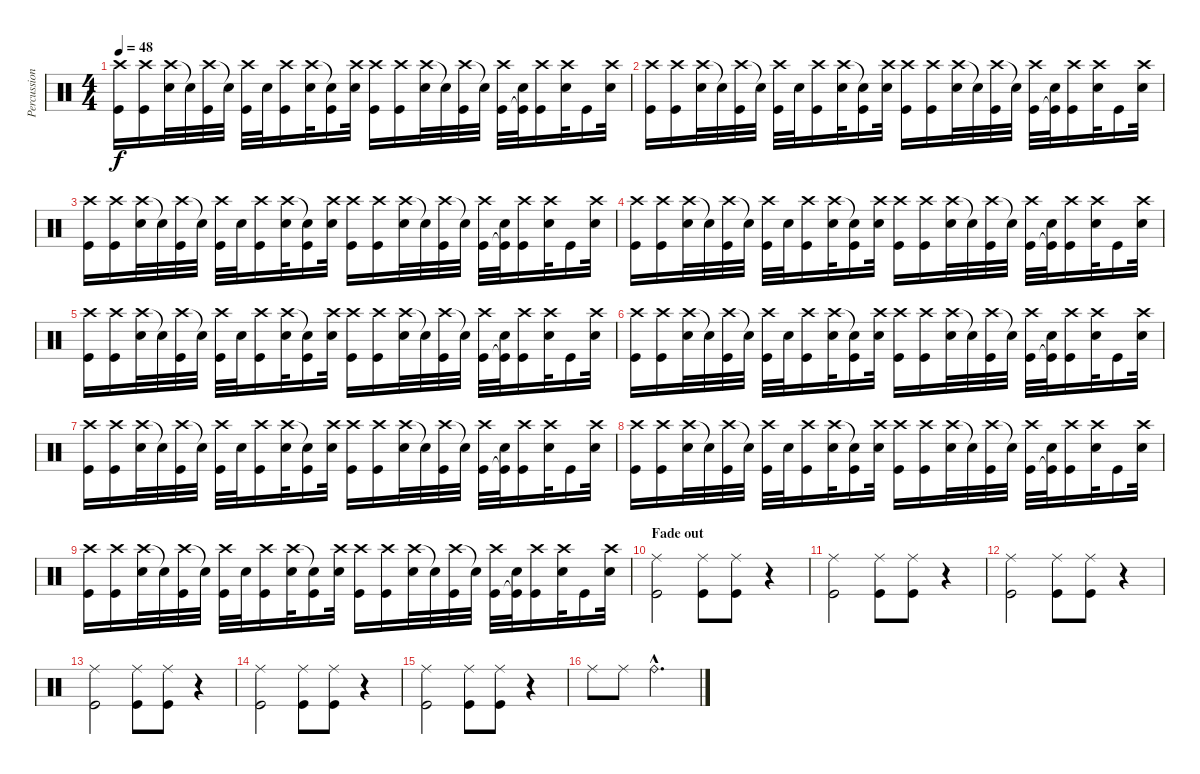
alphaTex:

\track ("Percussions" "Percussion") {instrument percussion}
\staff {score}
\articulation defaults
\ts (4 4)
\tempo 48
\clef neutral
\ks c
("Crash high (hit)" "Kick (hit)").16{dy f} ("Crash high (hit)" "Kick (hit)").16 ("Crash high (hit)" "Electric Snare (hit)").32 "Snare (hit)"{t}.32 ("Crash high (hit)" "Kick (hit)").32 "Snare (hit)"{t}.32 ("Crash high (hit)" "Kick (hit)").32 "Electric Snare (hit)".32 ("Crash high (hit)" "Kick (hit)").16 ("Crash high (hit)" "Electric Snare (hit)").32 ("Snare (hit)"{t} "Kick (hit)").16 ("Crash high (hit)" "Electric Snare (hit)").32 ("Crash high (hit)" "Kick (hit)").16 ("Crash high (hit)" "Kick (hit)").16 ("Crash high (hit)" "Electric Snare (hit)").32 "Snare (hit)"{t}.32 ("Crash high (hit)" "Kick (hit)").32 "Snare (hit)"{t}.32 ("Crash high (hit)" "Kick (hit)").32 ("Electric Snare (hit)" "Kick (hit)"{t}).32 ("Crash high (hit)" "Kick (hit)").16 ("Crash high (hit)" "Electric Snare (hit)").32 "Kick (hit)".16 ("Crash high (hit)" "Electric Snare (hit)").32 |
("Crash high (hit)" "Kick (hit)").16 ("Crash high (hit)" "Kick (hit)").16 ("Crash high (hit)" "Electric Snare (hit)").32 "Snare (hit)"{t}.32 ("Crash high (hit)" "Kick (hit)").32 "Snare (hit)"{t}.32 ("Crash high (hit)" "Kick (hit)").32 "Electric Snare (hit)".32 ("Crash high (hit)" "Kick (hit)").16 ("Crash high (hit)" "Electric Snare (hit)").32 ("Snare (hit)"{t} "Kick (hit)").16 ("Crash high (hit)" "Electric Snare (hit)").32 ("Crash high (hit)" "Kick (hit)").16 ("Crash high (hit)" "Kick (hit)").16 ("Crash high (hit)" "Electric Snare (hit)").32 "Snare (hit)"{t}.32 ("Crash high (hit)" "Kick (hit)").32 "Snare (hit)"{t}.32 ("Crash high (hit)" "Kick (hit)").32 ("Electric Snare (hit)" "Kick (hit)"{t}).32 ("Crash high (hit)" "Kick (hit)").16 ("Crash high (hit)" "Electric Snare (hit)").32 "Kick (hit)".16 ("Crash high (hit)" "Electric Snare (hit)").32 |
("Crash high (hit)" "Kick (hit)").16 ("Crash high (hit)" "Kick (hit)").16 ("Crash high (hit)" "Electric Snare (hit)").32 "Snare (hit)"{t}.32 ("Crash high (hit)" "Kick (hit)").32 "Snare (hit)"{t}.32 ("Crash high (hit)" "Kick (hit)").32 "Electric Snare (hit)".32 ("Crash high (hit)" "Kick (hit)").16 ("Crash high (hit)" "Electric Snare (hit)").32 ("Snare (hit)"{t} "Kick (hit)").16 ("Crash high (hit)" "Electric Snare (hit)").32 ("Crash high (hit)" "Kick (hit)").16 ("Crash high (hit)" "Kick (hit)").16 ("Crash high (hit)" "Electric Snare (hit)").32 "Snare (hit)"{t}.32 ("Crash high (hit)" "Kick (hit)").32 "Snare (hit)"{t}.32 ("Crash high (hit)" "Kick (hit)").32 ("Electric Snare (hit)" "Kick (hit)"{t}).32 ("Crash high (hit)" "Kick (hit)").16 ("Crash high (hit)" "Electric Snare (hit)").32 "Kick (hit)".16 ("Crash high (hit)" "Electric Snare (hit)").32 |
("Crash high (hit)" "Kick (hit)").16 ("Crash high (hit)" "Kick (hit)").16 ("Crash high (hit)" "Electric Snare (hit)").32 "Snare (hit)"{t}.32 ("Crash high (hit)" "Kick (hit)").32 "Snare (hit)"{t}.32 ("Crash high (hit)" "Kick (hit)").32 "Electric Snare (hit)".32 ("Crash high (hit)" "Kick (hit)").16 ("Crash high (hit)" "Electric Snare (hit)").32 ("Snare (hit)"{t} "Kick (hit)").16 ("Crash high (hit)" "Electric Snare (hit)").32 ("Crash high (hit)" "Kick (hit)").16 ("Crash high (hit)" "Kick (hit)").16 ("Crash high (hit)" "Electric Snare (hit)").32 "Snare (hit)"{t}.32 ("Crash high (hit)" "Kick (hit)").32 "Snare (hit)"{t}.32 ("Crash high (hit)" "Kick (hit)").32 ("Electric Snare (hit)" "Kick (hit)"{t}).32 ("Crash high (hit)" "Kick (hit)").16 ("Crash high (hit)" "Electric Snare (hit)").32 "Kick (hit)".16 ("Crash high (hit)" "Electric Snare (hit)").32 |
("Crash high (hit)" "Kick (hit)").16 ("Crash high (hit)" "Kick (hit)").16 ("Crash high (hit)" "Electric Snare (hit)").32 "Snare (hit)"{t}.32 ("Crash high (hit)" "Kick (hit)").32 "Snare (hit)"{t}.32 ("Crash high (hit)" "Kick (hit)").32 "Electric Snare (hit)".32 ("Crash high (hit)" "Kick (hit)").16 ("Crash high (hit)" "Electric Snare (hit)").32 ("Snare (hit)"{t} "Kick (hit)").16 ("Crash high (hit)" "Electric Snare (hit)").32 ("Crash high (hit)" "Kick (hit)").16 ("Crash high (hit)" "Kick (hit)").16 ("Crash high (hit)" "Electric Snare (hit)").32 "Snare (hit)"{t}.32 ("Crash high (hit)" "Kick (hit)").32 "Snare (hit)"{t}.32 ("Crash high (hit)" "Kick (hit)").32 ("Electric Snare (hit)" "Kick (hit)"{t}).32 ("Crash high (hit)" "Kick (hit)").16 ("Crash high (hit)" "Electric Snare (hit)").32 "Kick (hit)".16 ("Crash high (hit)" "Electric Snare (hit)").32 |
("Crash high (hit)" "Kick (hit)").16 ("Crash high (hit)" "Kick (hit)").16 ("Crash high (hit)" "Electric Snare (hit)").32 "Snare (hit)"{t}.32 ("Crash high (hit)" "Kick (hit)").32 "Snare (hit)"{t}.32 ("Crash high (hit)" "Kick (hit)").32 "Electric Snare (hit)".32 ("Crash high (hit)" "Kick (hit)").16 ("Crash high (hit)" "Electric Snare (hit)").32 ("Snare (hit)"{t} "Kick (hit)").16 ("Crash high (hit)" "Electric Snare (hit)").32 ("Crash high (hit)" "Kick (hit)").16 ("Crash high (hit)" "Kick (hit)").16 ("Crash high (hit)" "Electric Snare (hit)").32 "Snare (hit)"{t}.32 ("Crash high (hit)" "Kick (hit)").32 "Snare (hit)"{t}.32 ("Crash high (hit)" "Kick (hit)").32 ("Electric Snare (hit)" "Kick (hit)"{t}).32 ("Crash high (hit)" "Kick (hit)").16 ("Crash high (hit)" "Electric Snare (hit)").32 "Kick (hit)".16 ("Crash high (hit)" "Electric Snare (hit)").32 |
("Crash high (hit)" "Kick (hit)").16 ("Crash high (hit)" "Kick (hit)").16 ("Crash high (hit)" "Electric Snare (hit)").32 "Snare (hit)"{t}.32 ("Crash high (hit)" "Kick (hit)").32 "Snare (hit)"{t}.32 ("Crash high (hit)" "Kick (hit)").32 "Electric Snare (hit)".32 ("Crash high (hit)" "Kick (hit)").16 ("Crash high (hit)" "Electric Snare (hit)").32 ("Snare (hit)"{t} "Kick (hit)").16 ("Crash high (hit)" "Electric Snare (hit)").32 ("Crash high (hit)" "Kick (hit)").16 ("Crash high (hit)" "Kick (hit)").16 ("Crash high (hit)" "Electric Snare (hit)").32 "Snare (hit)"{t}.32 ("Crash high (hit)" "Kick (hit)").32 "Snare (hit)"{t}.32 ("Crash high (hit)" "Kick (hit)").32 ("Electric Snare (hit)" "Kick (hit)"{t}).32 ("Crash high (hit)" "Kick (hit)").16 ("Crash high (hit)" "Electric Snare (hit)").32 "Kick (hit)".16 ("Crash high (hit)" "Electric Snare (hit)").32 |
("Crash high (hit)" "Kick (hit)").16 ("Crash high (hit)" "Kick (hit)").16 ("Crash high (hit)" "Electric Snare (hit)").32 "Snare (hit)"{t}.32 ("Crash high (hit)" "Kick (hit)").32 "Snare (hit)"{t}.32 ("Crash high (hit)" "Kick (hit)").32 "Electric Snare (hit)".32 ("Crash high (hit)" "Kick (hit)").16 ("Crash high (hit)" "Electric Snare (hit)").32 ("Snare (hit)"{t} "Kick (hit)").16 ("Crash high (hit)" "Electric Snare (hit)").32 ("Crash high (hit)" "Kick (hit)").16 ("Crash high (hit)" "Kick (hit)").16 ("Crash high (hit)" "Electric Snare (hit)").32 "Snare (hit)"{t}.32 ("Crash high (hit)" "Kick (hit)").32 "Snare (hit)"{t}.32 ("Crash high (hit)" "Kick (hit)").32 ("Electric Snare (hit)" "Kick (hit)"{t}).32 ("Crash high (hit)" "Kick (hit)").16 ("Crash high (hit)" "Electric Snare (hit)").32 "Kick (hit)".16 ("Crash high (hit)" "Electric Snare (hit)").32 |
("Crash high (hit)" "Kick (hit)").16 ("Crash high (hit)" "Kick (hit)").16 ("Crash high (hit)" "Electric Snare (hit)").32 "Snare (hit)"{t}.32 ("Crash high (hit)" "Kick (hit)").32 "Snare (hit)"{t}.32 ("Crash high (hit)" "Kick (hit)").32 "Electric Snare (hit)".32 ("Crash high (hit)" "Kick (hit)").16 ("Crash high (hit)" "Electric Snare (hit)").32 ("Snare (hit)"{t} "Kick (hit)").16 ("Crash high (hit)" "Electric Snare (hit)").32 ("Crash high (hit)" "Kick (hit)").16 ("Crash high (hit)" "Kick (hit)").16 ("Crash high (hit)" "Electric Snare (hit)").32 "Snare (hit)"{t}.32 ("Crash high (hit)" "Kick (hit)").32 "Snare (hit)"{t}.32 ("Crash high (hit)" "Kick (hit)").32 ("Electric Snare (hit)" "Kick (hit)"{t}).32 ("Crash high (hit)" "Kick (hit)").16 ("Crash high (hit)" "Electric Snare (hit)").32 "Kick (hit)".16 ("Crash high (hit)" "Electric Snare (hit)").32 |
\section ("" "Fade out")
("Ride (middle)" "Kick (hit)").2 ("Ride (middle)" "Kick (hit)").8 ("Ride (middle)" "Kick (hit)").8 r.4 |
("Ride (middle)" "Kick (hit)").2 ("Ride (middle)" "Kick (hit)").8 ("Ride (middle)" "Kick (hit)").8 r.4 |
("Ride (middle)" "Kick (hit)").2 ("Ride (middle)" "Kick (hit)").8 ("Ride (middle)" "Kick (hit)").8 r.4 |
("Ride (middle)" "Kick (hit)").2 ("Ride (middle)" "Kick (hit)").8 ("Ride (middle)" "Kick (hit)").8 r.4 |
("Ride (middle)" "Kick (hit)").2 ("Ride (middle)" "Kick (hit)").8 ("Ride (middle)" "Kick (hit)").8 r.4 |
("Ride (middle)" "Kick (hit)").2 ("Ride (middle)" "Kick (hit)").8 ("Ride (middle)" "Kick (hit)").8 r.4 |
"Ride (middle)".8 "Ride (middle)".8 "Ride (bell)"{hac}.2{d}
